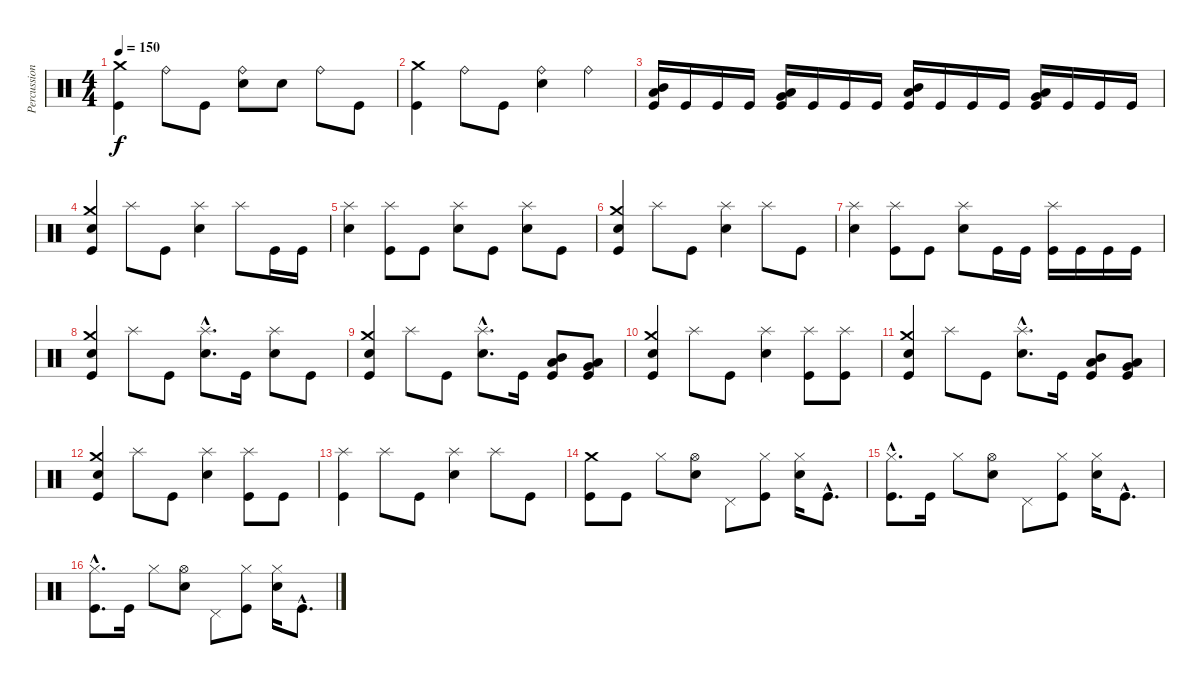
\track ("Percussions" "Percussion") {instrument percussion}
\staff {score}
\articulation defaults
\ts (4 4)
\tempo 150
\clef neutral
\ks c
("Kick (hit)" "Crash medium (hit)").4{dy f} "Ride (bell)".8 "Kick (hit)".8 ("Electric Snare (hit)" "Ride (bell)").8 "Electric Snare (hit)".8 "Ride (bell)".8 "Kick (hit)".8 |
("Kick (hit)" "Crash medium (hit)").4 "Ride (bell)".8 "Kick (hit)".8 ("Electric Snare (hit)" "Ride (bell)").4 "Ride (bell)".4 |
("Kick (hit)" "Mid Tom (hit)" "Low Tom (hit)").16 "Kick (hit)".16 "Kick (hit)".16 "Kick (hit)".16 ("Kick (hit)" "Very Low Tom (hit)" "Low Tom (hit)").16 "Kick (hit)".16 "Kick (hit)".16 "Kick (hit)".16 ("Kick (hit)" "Mid Tom (hit)" "Low Tom (hit)").16 "Kick (hit)".16 "Kick (hit)".16 "Kick (hit)".16 ("Kick (hit)" "Very Low Tom (hit)" "Low Tom (hit)").16 "Kick (hit)".16 "Kick (hit)".16 "Kick (hit)".16 |
("Kick (hit)" "Electric Snare (hit)" "Crash medium (hit)").4 "Splash (hit)".8 "Kick (hit)".8 ("Electric Snare (hit)" "Splash (hit)").4 "Splash (hit)".8 "Kick (hit)".16 "Kick (hit)".16 |
("Electric Snare (hit)" "Splash (hit)").4 ("Kick (hit)" "Splash (hit)").8 "Kick (hit)".8 ("Electric Snare (hit)" "Splash (hit)").8 "Kick (hit)".8 ("Electric Snare (hit)" "Splash (hit)").8 "Kick (hit)".8 |
("Kick (hit)" "Electric Snare (hit)" "Crash medium (hit)").4 "Splash (hit)".8 "Kick (hit)".8 ("Electric Snare (hit)" "Splash (hit)").4 "Splash (hit)".8 "Kick (hit)".8 |
("Electric Snare (hit)" "Splash (hit)").4 ("Kick (hit)" "Splash (hit)").8 "Kick (hit)".8 ("Electric Snare (hit)" "Splash (hit)").8 "Kick (hit)".16 "Kick (hit)".16 ("Kick (hit)" "Splash (hit)").16 "Kick (hit)".16 "Kick (hit)".16 "Kick (hit)".16 |
("Kick (hit)" "Electric Snare (hit)" "Crash medium (hit)").4 "Splash (hit)".8 "Kick (hit)".8 ("Electric Snare (hit)"{hac} "Splash (hit)"{hac}).8{d} "Kick (hit)".16 ("Electric Snare (hit)" "Splash (hit)").8 "Kick (hit)".8 |
("Kick (hit)" "Electric Snare (hit)" "Crash medium (hit)").4 "Splash (hit)".8 "Kick (hit)".8 ("Electric Snare (hit)"{hac} "Splash (hit)"{hac}).8{d} "Kick (hit)".16 ("Kick (hit)" "Mid Tom (hit)" "Low Tom (hit)").8 ("Kick (hit)" "Low Tom (hit)" "Very Low Tom (hit)").8 |
("Kick (hit)" "Electric Snare (hit)" "Crash medium (hit)").4 "Splash (hit)".8 "Kick (hit)".8 ("Electric Snare (hit)" "Splash (hit)").4 ("Kick (hit)" "Splash (hit)").8 ("Kick (hit)" "Splash (hit)").8 |
("Kick (hit)" "Electric Snare (hit)" "Crash medium (hit)").4 "Splash (hit)".8 "Kick (hit)".8 ("Electric Snare (hit)"{hac} "Splash (hit)"{hac}).8{d} "Kick (hit)".16 ("Kick (hit)" "Mid Tom (hit)" "Low Tom (hit)").8 ("Kick (hit)" "Very Low Tom (hit)" "Low Floor Tom (hit)").8 |
("Kick (hit)" "Electric Snare (hit)" "Crash medium (hit)").4 "Splash (hit)".8 "Kick (hit)".8 ("Electric Snare (hit)" "Splash (hit)").4 ("Kick (hit)" "Splash (hit)").8 "Kick (hit)".8 |
("Kick (hit)" "Splash (hit)").4 "Splash (hit)".8 "Kick (hit)".8 ("Electric Snare (hit)" "Splash (hit)").4 "Splash (hit)".8 "Kick (hit)".8 |
("Kick (hit)" "Crash medium (hit)").8 "Kick (hit)".8 "Hi-Hat (closed)".8 ("Electric Snare (hit)" "Hi-Hat (open)").8 "Pedal Hi-Hat (hit)".8 ("Kick (hit)" "Hi-Hat (closed)").8 ("Electric Snare (hit)" "Hi-Hat (closed)").16 "Kick (hit)"{hac}.8{d} |
("Kick (hit)"{hac} "Hi-Hat (closed)"{hac}).8{d} "Kick (hit)".16 "Hi-Hat (closed)".8 ("Electric Snare (hit)" "Hi-Hat (open)").8 "Pedal Hi-Hat (hit)".8 ("Kick (hit)" "Hi-Hat (closed)").8 ("Electric Snare (hit)" "Hi-Hat (closed)").16 "Kick (hit)"{hac}.8{d} |
("Kick (hit)"{hac} "Hi-Hat (closed)"{hac}).8{d} "Kick (hit)".16 "Hi-Hat (closed)".8 ("Electric Snare (hit)" "Hi-Hat (open)").8 "Pedal Hi-Hat (hit)".8 ("Kick (hit)" "Hi-Hat (closed)").8 ("Electric Snare (hit)" "Hi-Hat (closed)").16 "Kick (hit)"{hac}.8{d}
